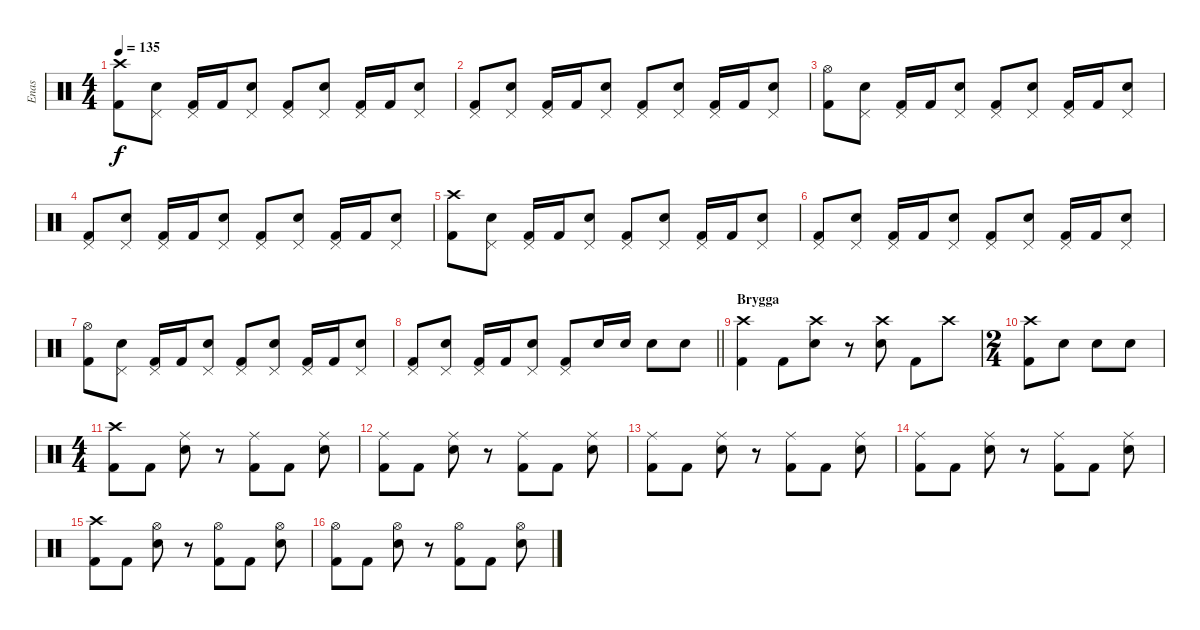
\track ("Enas" "Enas") {instrument percussion}
\staff {score}
\articulation defaults
\ts (4 4)
\tempo 135
\clef neutral
\ks c
("Kick (hit) 2" "Crash high (hit)").8{dy f} ("Snare (hit) 2" "Pedal Hi-Hat (hit)").8 ("Kick (hit) 2" "Pedal Hi-Hat (hit)").16 "Kick (hit) 2".16 ("Snare (hit) 2" "Pedal Hi-Hat (hit)").8 ("Kick (hit) 2" "Pedal Hi-Hat (hit)").8 ("Snare (hit) 2" "Pedal Hi-Hat (hit)").8 ("Kick (hit) 2" "Pedal Hi-Hat (hit)").16 "Kick (hit) 2".16 ("Snare (hit) 2" "Pedal Hi-Hat (hit)").8 |
("Kick (hit) 2" "Pedal Hi-Hat (hit)").8 ("Snare (hit) 2" "Pedal Hi-Hat (hit)").8 ("Kick (hit) 2" "Pedal Hi-Hat (hit)").16 "Kick (hit) 2".16 ("Snare (hit) 2" "Pedal Hi-Hat (hit)").8 ("Kick (hit) 2" "Pedal Hi-Hat (hit)").8 ("Snare (hit) 2" "Pedal Hi-Hat (hit)").8 ("Kick (hit) 2" "Pedal Hi-Hat (hit)").16 "Kick (hit) 2".16 ("Snare (hit) 2" "Pedal Hi-Hat (hit)").8 |
("Kick (hit) 2" "Hi-Hat (open)").8 ("Snare (hit) 2" "Pedal Hi-Hat (hit)").8 ("Kick (hit) 2" "Pedal Hi-Hat (hit)").16 "Kick (hit) 2".16 ("Snare (hit) 2" "Pedal Hi-Hat (hit)").8 ("Kick (hit) 2" "Pedal Hi-Hat (hit)").8 ("Snare (hit) 2" "Pedal Hi-Hat (hit)").8 ("Kick (hit) 2" "Pedal Hi-Hat (hit)").16 "Kick (hit) 2".16 ("Snare (hit) 2" "Pedal Hi-Hat (hit)").8 |
("Kick (hit) 2" "Pedal Hi-Hat (hit)").8 ("Snare (hit) 2" "Pedal Hi-Hat (hit)").8 ("Kick (hit) 2" "Pedal Hi-Hat (hit)").16 "Kick (hit) 2".16 ("Snare (hit) 2" "Pedal Hi-Hat (hit)").8 ("Kick (hit) 2" "Pedal Hi-Hat (hit)").8 ("Snare (hit) 2" "Pedal Hi-Hat (hit)").8 ("Kick (hit) 2" "Pedal Hi-Hat (hit)").16 "Kick (hit) 2".16 ("Snare (hit) 2" "Pedal Hi-Hat (hit)").8 |
("Kick (hit) 2" "Crash high (hit)").8 ("Snare (hit) 2" "Pedal Hi-Hat (hit)").8 ("Kick (hit) 2" "Pedal Hi-Hat (hit)").16 "Kick (hit) 2".16 ("Snare (hit) 2" "Pedal Hi-Hat (hit)").8 ("Kick (hit) 2" "Pedal Hi-Hat (hit)").8 ("Snare (hit) 2" "Pedal Hi-Hat (hit)").8 ("Kick (hit) 2" "Pedal Hi-Hat (hit)").16 "Kick (hit) 2".16 ("Snare (hit) 2" "Pedal Hi-Hat (hit)").8 |
("Kick (hit) 2" "Pedal Hi-Hat (hit)").8 ("Snare (hit) 2" "Pedal Hi-Hat (hit)").8 ("Kick (hit) 2" "Pedal Hi-Hat (hit)").16 "Kick (hit) 2".16 ("Snare (hit) 2" "Pedal Hi-Hat (hit)").8 ("Kick (hit) 2" "Pedal Hi-Hat (hit)").8 ("Snare (hit) 2" "Pedal Hi-Hat (hit)").8 ("Kick (hit) 2" "Pedal Hi-Hat (hit)").16 "Kick (hit) 2".16 ("Snare (hit) 2" "Pedal Hi-Hat (hit)").8 |
("Kick (hit) 2" "Hi-Hat (open)").8 ("Snare (hit) 2" "Pedal Hi-Hat (hit)").8 ("Kick (hit) 2" "Pedal Hi-Hat (hit)").16 "Kick (hit) 2".16 ("Snare (hit) 2" "Pedal Hi-Hat (hit)").8 ("Kick (hit) 2" "Pedal Hi-Hat (hit)").8 ("Snare (hit) 2" "Pedal Hi-Hat (hit)").8 ("Kick (hit) 2" "Pedal Hi-Hat (hit)").16 "Kick (hit) 2".16 ("Snare (hit) 2" "Pedal Hi-Hat (hit)").8 |
\barLineRight lightlight
("Kick (hit) 2" "Pedal Hi-Hat (hit)").8 ("Snare (hit) 2" "Pedal Hi-Hat (hit)").8 ("Kick (hit) 2" "Pedal Hi-Hat (hit)").16 "Kick (hit) 2".16 ("Snare (hit) 2" "Pedal Hi-Hat (hit)").8 ("Kick (hit) 2" "Pedal Hi-Hat (hit)").8 "Snare (hit) 2".16 "Snare (hit) 2".16 "Snare (hit) 2".8 "Snare (hit) 2".8 |
\section ("" "Brygga")
("Kick (hit) 2" "Crash high (hit)").4 "Kick (hit) 2".8 ("Snare (hit) 2" "Crash high (hit)").8 r.8 ("Snare (hit) 2" "Crash high (hit)").8 "Kick (hit) 2".8 "Crash high (hit)".8 |
\ts (2 4)
("Kick (hit) 2" "Crash high (hit)").8 "Snare (hit) 2".8 "Snare (hit) 2".8 "Snare (hit) 2".8 |
\ts (4 4)
("Kick (hit) 2" "Crash high (hit)").8 "Kick (hit) 2".8 ("Snare (hit) 2" "Ride (middle)").8 r.8 ("Kick (hit) 2" "Ride (middle)").8 "Kick (hit) 2".8 ("Snare (hit) 2" "Ride (middle)").8 |
("Kick (hit) 2" "Ride (middle)").8 "Kick (hit) 2".8 ("Snare (hit) 2" "Ride (middle)").8 r.8 ("Kick (hit) 2" "Ride (middle)").8 "Kick (hit) 2".8 ("Snare (hit) 2" "Ride (middle)").8 |
("Kick (hit) 2" "Ride (middle)").8 "Kick (hit) 2".8 ("Snare (hit) 2" "Ride (middle)").8 r.8 ("Kick (hit) 2" "Ride (middle)").8 "Kick (hit) 2".8 ("Snare (hit) 2" "Ride (middle)").8 |
("Kick (hit) 2" "Ride (middle)").8 "Kick (hit) 2".8 ("Snare (hit) 2" "Ride (middle)").8 r.8 ("Kick (hit) 2" "Ride (middle)").8 "Kick (hit) 2".8 ("Snare (hit) 2" "Ride (middle)").8 |
("Kick (hit) 2" "Crash high (hit)").8 "Kick (hit) 2".8 ("Snare (hit) 2" "Hi-Hat (open)").8 r.8 ("Kick (hit) 2" "Hi-Hat (open)").8 "Kick (hit) 2".8 ("Snare (hit) 2" "Hi-Hat (open)").8 |
("Kick (hit) 2" "Hi-Hat (open)").8 "Kick (hit) 2".8 ("Snare (hit) 2" "Hi-Hat (open)").8 r.8 ("Kick (hit) 2" "Hi-Hat (open)").8 "Kick (hit) 2".8 ("Snare (hit) 2" "Hi-Hat (open)").8
